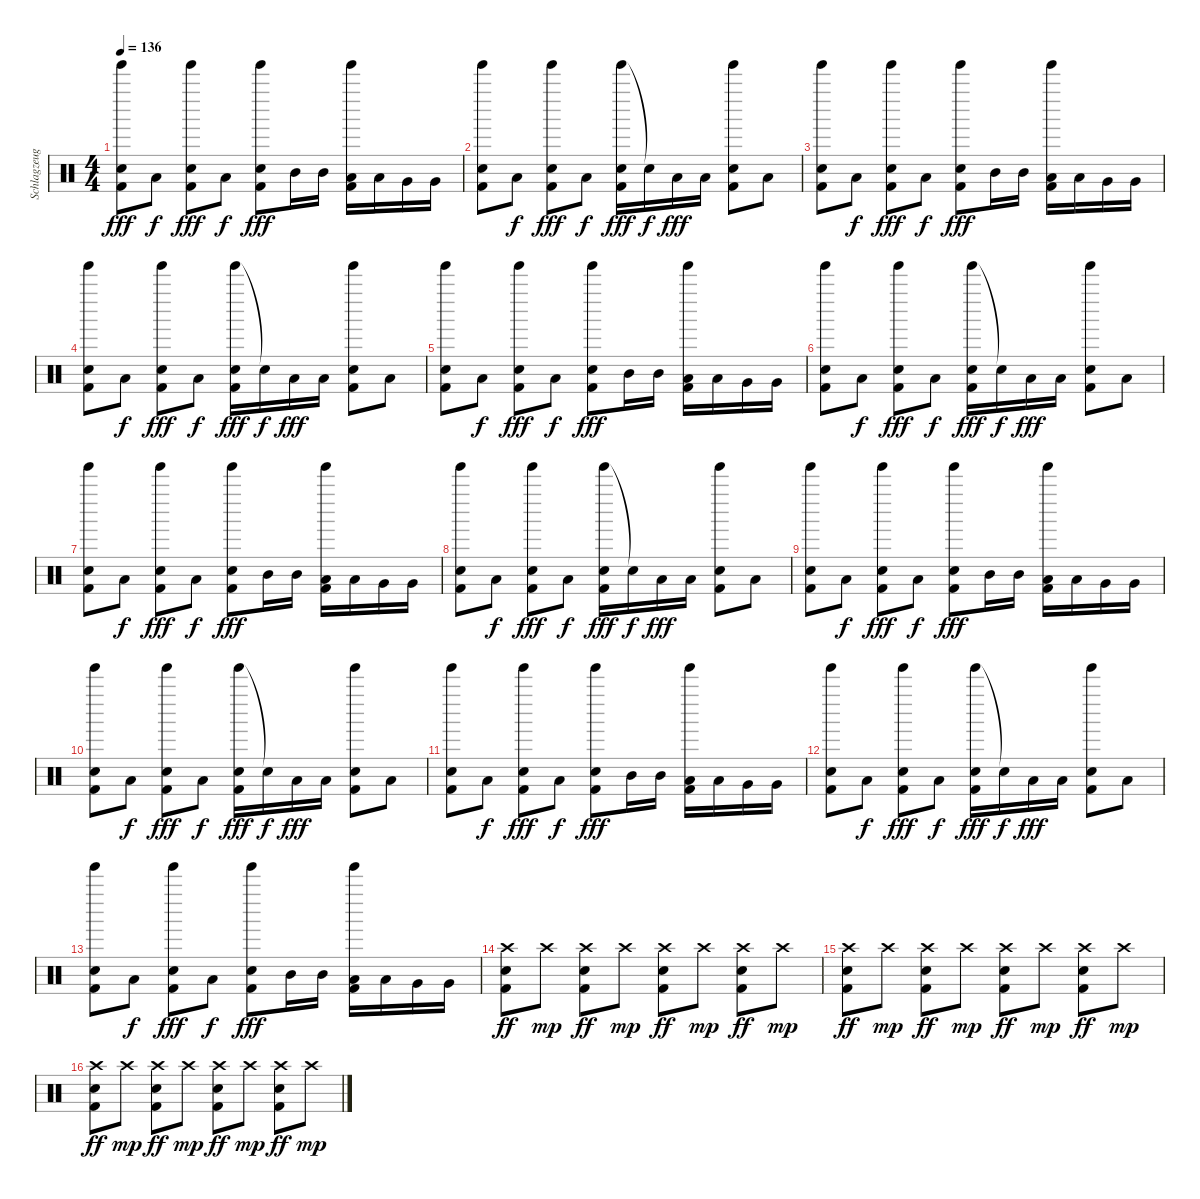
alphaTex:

\track ("Schlagzeug - der Hund Marie" "Schlagzeug") {instrument percussion}
\staff {score}
\articulation defaults
\ts (4 4)
\tempo 136
\clef neutral
\ks c
("Tinkle Bell (hit)" "Snare (hit) 2" "Kick (hit) 2").8{dy fff} "Low Tom (hit)".8{dy f} ("Tinkle Bell (hit)" "Snare (hit) 2" "Kick (hit) 2").8{dy fff} "Low Tom (hit)".8{dy f} ("Tinkle Bell (hit)" "Snare (hit) 2" "Kick (hit) 2").8{dy fff} "Mid Tom (hit)".16 "Mid Tom (hit)".16 ("Tinkle Bell (hit)" "Low Tom (hit)" "Kick (hit) 2").16 "Low Tom (hit)".16 "Very Low Tom (hit)".16 "Very Low Tom (hit)".16 |
("Tinkle Bell (hit)" "Snare (hit) 2" "Kick (hit) 2").8 "Low Tom (hit)".8{dy f} ("Tinkle Bell (hit)" "Snare (hit) 2" "Kick (hit) 2").8{dy fff} "Low Tom (hit)".8{dy f} ("Tinkle Bell (hit)" "Snare (hit) 2" "Kick (hit) 2").16{dy fff} "Snare (hit) 2"{t}.16{dy f} "Low Tom (hit)".16{dy fff} "Low Tom (hit)".16 ("Tinkle Bell (hit)" "Snare (hit) 2" "Kick (hit) 2").8 "Low Tom (hit)".8 |
("Tinkle Bell (hit)" "Snare (hit) 2" "Kick (hit) 2").8 "Low Tom (hit)".8{dy f} ("Tinkle Bell (hit)" "Snare (hit) 2" "Kick (hit) 2").8{dy fff} "Low Tom (hit)".8{dy f} ("Tinkle Bell (hit)" "Snare (hit) 2" "Kick (hit) 2").8{dy fff} "Mid Tom (hit)".16 "Mid Tom (hit)".16 ("Tinkle Bell (hit)" "Low Tom (hit)" "Kick (hit) 2").16 "Low Tom (hit)".16 "Very Low Tom (hit)".16 "Very Low Tom (hit)".16 |
("Tinkle Bell (hit)" "Snare (hit) 2" "Kick (hit) 2").8 "Low Tom (hit)".8{dy f} ("Tinkle Bell (hit)" "Snare (hit) 2" "Kick (hit) 2").8{dy fff} "Low Tom (hit)".8{dy f} ("Tinkle Bell (hit)" "Snare (hit) 2" "Kick (hit) 2").16{dy fff} "Snare (hit) 2"{t}.16{dy f} "Low Tom (hit)".16{dy fff} "Low Tom (hit)".16 ("Tinkle Bell (hit)" "Snare (hit) 2" "Kick (hit) 2").8 "Low Tom (hit)".8 |
("Tinkle Bell (hit)" "Snare (hit) 2" "Kick (hit) 2").8 "Low Tom (hit)".8{dy f} ("Tinkle Bell (hit)" "Snare (hit) 2" "Kick (hit) 2").8{dy fff} "Low Tom (hit)".8{dy f} ("Tinkle Bell (hit)" "Snare (hit) 2" "Kick (hit) 2").8{dy fff} "Mid Tom (hit)".16 "Mid Tom (hit)".16 ("Tinkle Bell (hit)" "Low Tom (hit)" "Kick (hit) 2").16 "Low Tom (hit)".16 "Very Low Tom (hit)".16 "Very Low Tom (hit)".16 |
("Tinkle Bell (hit)" "Snare (hit) 2" "Kick (hit) 2").8 "Low Tom (hit)".8{dy f} ("Tinkle Bell (hit)" "Snare (hit) 2" "Kick (hit) 2").8{dy fff} "Low Tom (hit)".8{dy f} ("Tinkle Bell (hit)" "Snare (hit) 2" "Kick (hit) 2").16{dy fff} "Snare (hit) 2"{t}.16{dy f} "Low Tom (hit)".16{dy fff} "Low Tom (hit)".16 ("Tinkle Bell (hit)" "Snare (hit) 2" "Kick (hit) 2").8 "Low Tom (hit)".8 |
("Tinkle Bell (hit)" "Snare (hit) 2" "Kick (hit) 2").8 "Low Tom (hit)".8{dy f} ("Tinkle Bell (hit)" "Snare (hit) 2" "Kick (hit) 2").8{dy fff} "Low Tom (hit)".8{dy f} ("Tinkle Bell (hit)" "Snare (hit) 2" "Kick (hit) 2").8{dy fff} "Mid Tom (hit)".16 "Mid Tom (hit)".16 ("Tinkle Bell (hit)" "Low Tom (hit)" "Kick (hit) 2").16 "Low Tom (hit)".16 "Very Low Tom (hit)".16 "Very Low Tom (hit)".16 |
("Tinkle Bell (hit)" "Snare (hit) 2" "Kick (hit) 2").8 "Low Tom (hit)".8{dy f} ("Tinkle Bell (hit)" "Snare (hit) 2" "Kick (hit) 2").8{dy fff} "Low Tom (hit)".8{dy f} ("Tinkle Bell (hit)" "Snare (hit) 2" "Kick (hit) 2").16{dy fff} "Snare (hit) 2"{t}.16{dy f} "Low Tom (hit)".16{dy fff} "Low Tom (hit)".16 ("Tinkle Bell (hit)" "Snare (hit) 2" "Kick (hit) 2").8 "Low Tom (hit)".8 |
("Tinkle Bell (hit)" "Snare (hit) 2" "Kick (hit) 2").8 "Low Tom (hit)".8{dy f} ("Tinkle Bell (hit)" "Snare (hit) 2" "Kick (hit) 2").8{dy fff} "Low Tom (hit)".8{dy f} ("Tinkle Bell (hit)" "Snare (hit) 2" "Kick (hit) 2").8{dy fff} "Mid Tom (hit)".16 "Mid Tom (hit)".16 ("Tinkle Bell (hit)" "Low Tom (hit)" "Kick (hit) 2").16 "Low Tom (hit)".16 "Very Low Tom (hit)".16 "Very Low Tom (hit)".16 |
("Tinkle Bell (hit)" "Snare (hit) 2" "Kick (hit) 2").8 "Low Tom (hit)".8{dy f} ("Tinkle Bell (hit)" "Snare (hit) 2" "Kick (hit) 2").8{dy fff} "Low Tom (hit)".8{dy f} ("Tinkle Bell (hit)" "Snare (hit) 2" "Kick (hit) 2").16{dy fff} "Snare (hit) 2"{t}.16{dy f} "Low Tom (hit)".16{dy fff} "Low Tom (hit)".16 ("Tinkle Bell (hit)" "Snare (hit) 2" "Kick (hit) 2").8 "Low Tom (hit)".8 |
("Tinkle Bell (hit)" "Snare (hit) 2" "Kick (hit) 2").8 "Low Tom (hit)".8{dy f} ("Tinkle Bell (hit)" "Snare (hit) 2" "Kick (hit) 2").8{dy fff} "Low Tom (hit)".8{dy f} ("Tinkle Bell (hit)" "Snare (hit) 2" "Kick (hit) 2").8{dy fff} "Mid Tom (hit)".16 "Mid Tom (hit)".16 ("Tinkle Bell (hit)" "Low Tom (hit)" "Kick (hit) 2").16 "Low Tom (hit)".16 "Very Low Tom (hit)".16 "Very Low Tom (hit)".16 |
("Tinkle Bell (hit)" "Snare (hit) 2" "Kick (hit) 2").8 "Low Tom (hit)".8{dy f} ("Tinkle Bell (hit)" "Snare (hit) 2" "Kick (hit) 2").8{dy fff} "Low Tom (hit)".8{dy f} ("Tinkle Bell (hit)" "Snare (hit) 2" "Kick (hit) 2").16{dy fff} "Snare (hit) 2"{t}.16{dy f} "Low Tom (hit)".16{dy fff} "Low Tom (hit)".16 ("Tinkle Bell (hit)" "Snare (hit) 2" "Kick (hit) 2").8 "Low Tom (hit)".8 |
("Tinkle Bell (hit)" "Snare (hit) 2" "Kick (hit) 2").8 "Low Tom (hit)".8{dy f} ("Tinkle Bell (hit)" "Snare (hit) 2" "Kick (hit) 2").8{dy fff} "Low Tom (hit)".8{dy f} ("Tinkle Bell (hit)" "Snare (hit) 2" "Kick (hit) 2").8{dy fff} "Mid Tom (hit)".16 "Mid Tom (hit)".16 ("Tinkle Bell (hit)" "Low Tom (hit)" "Kick (hit) 2").16 "Low Tom (hit)".16 "Very Low Tom (hit)".16 "Very Low Tom (hit)".16 |
("Crash high (hit)" "Snare (hit) 2" "Kick (hit) 2").8{dy ff} "Crash high (hit)".8{dy mp} ("Crash high (hit)" "Snare (hit) 2" "Kick (hit) 2").8{dy ff} "Crash high (hit)".8{dy mp} ("Crash high (hit)" "Snare (hit) 2" "Kick (hit) 2").8{dy ff} "Crash high (hit)".8{dy mp} ("Crash high (hit)" "Snare (hit) 2" "Kick (hit) 2").8{dy ff} "Crash high (hit)".8{dy mp} |
("Crash high (hit)" "Snare (hit) 2" "Kick (hit) 2").8{dy ff} "Crash high (hit)".8{dy mp} ("Crash high (hit)" "Snare (hit) 2" "Kick (hit) 2").8{dy ff} "Crash high (hit)".8{dy mp} ("Crash high (hit)" "Snare (hit) 2" "Kick (hit) 2").8{dy ff} "Crash high (hit)".8{dy mp} ("Crash high (hit)" "Snare (hit) 2" "Kick (hit) 2").8{dy ff} "Crash high (hit)".8{dy mp} |
("Crash high (hit)" "Snare (hit) 2" "Kick (hit) 2").8{dy ff} "Crash high (hit)".8{dy mp} ("Crash high (hit)" "Snare (hit) 2" "Kick (hit) 2").8{dy ff} "Crash high (hit)".8{dy mp} ("Crash high (hit)" "Snare (hit) 2" "Kick (hit) 2").8{dy ff} "Crash high (hit)".8{dy mp} ("Crash high (hit)" "Snare (hit) 2" "Kick (hit) 2").8{dy ff} "Crash high (hit)".8{dy mp}
